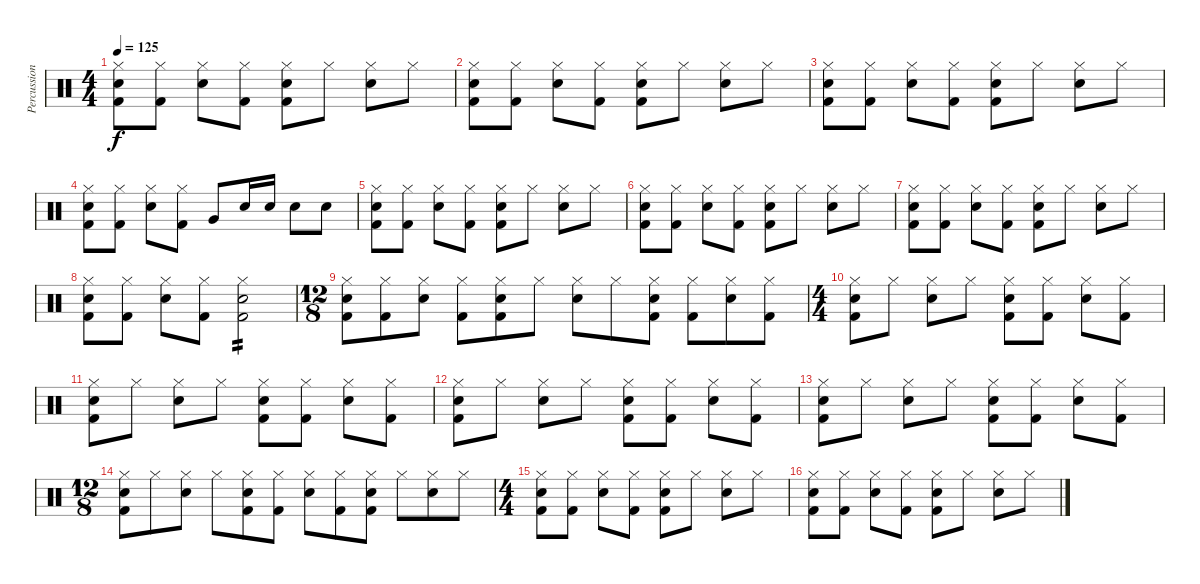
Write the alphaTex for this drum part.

\track ("Percussion" "Percussion") {instrument percussion}
\staff {score}
\articulation defaults
\ts (4 4)
\tempo 125
\clef neutral
\ks c
("Hi-Hat (closed)" "Electric Snare (hit)" "Kick (hit) 2").8{dy f} ("Hi-Hat (closed)" "Kick (hit) 2").8 ("Hi-Hat (closed)" "Electric Snare (hit)").8 ("Hi-Hat (closed)" "Kick (hit) 2").8 ("Hi-Hat (closed)" "Electric Snare (hit)" "Kick (hit) 2").8 "Hi-Hat (closed)".8 ("Hi-Hat (closed)" "Electric Snare (hit)").8 "Hi-Hat (closed)".8 |
("Hi-Hat (closed)" "Electric Snare (hit)" "Kick (hit) 2").8 ("Hi-Hat (closed)" "Kick (hit) 2").8 ("Hi-Hat (closed)" "Electric Snare (hit)").8 ("Hi-Hat (closed)" "Kick (hit) 2").8 ("Hi-Hat (closed)" "Electric Snare (hit)" "Kick (hit) 2").8 "Hi-Hat (closed)".8 ("Hi-Hat (closed)" "Electric Snare (hit)").8 "Hi-Hat (closed)".8 |
("Hi-Hat (closed)" "Electric Snare (hit)" "Kick (hit) 2").8 ("Hi-Hat (closed)" "Kick (hit) 2").8 ("Hi-Hat (closed)" "Electric Snare (hit)").8 ("Hi-Hat (closed)" "Kick (hit) 2").8 ("Hi-Hat (closed)" "Electric Snare (hit)" "Kick (hit) 2").8 "Hi-Hat (closed)".8 ("Hi-Hat (closed)" "Electric Snare (hit)").8 "Hi-Hat (closed)".8 |
("Hi-Hat (closed)" "Electric Snare (hit)" "Kick (hit) 2").8 ("Hi-Hat (closed)" "Kick (hit) 2").8 ("Hi-Hat (closed)" "Electric Snare (hit)").8 ("Hi-Hat (closed)" "Kick (hit) 2").8 "Very Low Tom (hit)".8 "Electric Snare (hit)".16 "Electric Snare (hit)".16 "Electric Snare (hit)".8 "Electric Snare (hit)".8 |
("Hi-Hat (closed)" "Electric Snare (hit)" "Kick (hit) 2").8 ("Hi-Hat (closed)" "Kick (hit) 2").8 ("Hi-Hat (closed)" "Electric Snare (hit)").8 ("Hi-Hat (closed)" "Kick (hit) 2").8 ("Hi-Hat (closed)" "Electric Snare (hit)" "Kick (hit) 2").8 "Hi-Hat (closed)".8 ("Hi-Hat (closed)" "Electric Snare (hit)").8 "Hi-Hat (closed)".8 |
("Hi-Hat (closed)" "Electric Snare (hit)" "Kick (hit) 2").8 ("Hi-Hat (closed)" "Kick (hit) 2").8 ("Hi-Hat (closed)" "Electric Snare (hit)").8 ("Hi-Hat (closed)" "Kick (hit) 2").8 ("Hi-Hat (closed)" "Electric Snare (hit)" "Kick (hit) 2").8 "Hi-Hat (closed)".8 ("Hi-Hat (closed)" "Electric Snare (hit)").8 "Hi-Hat (closed)".8 |
("Hi-Hat (closed)" "Electric Snare (hit)" "Kick (hit) 2").8 ("Hi-Hat (closed)" "Kick (hit) 2").8 ("Hi-Hat (closed)" "Electric Snare (hit)").8 ("Hi-Hat (closed)" "Kick (hit) 2").8 ("Hi-Hat (closed)" "Electric Snare (hit)" "Kick (hit) 2").8 "Hi-Hat (closed)".8 ("Hi-Hat (closed)" "Electric Snare (hit)").8 "Hi-Hat (closed)".8 |
("Hi-Hat (closed)" "Electric Snare (hit)" "Kick (hit) 2").8 ("Hi-Hat (closed)" "Kick (hit) 2").8 ("Hi-Hat (closed)" "Electric Snare (hit)").8 ("Hi-Hat (closed)" "Kick (hit) 2").8 ("Hi-Hat (closed)" "Electric Snare (hit)" "Kick (hit) 2").2{tp 2} |
\ts (12 8)
("Hi-Hat (closed)" "Electric Snare (hit)" "Kick (hit) 2").8 ("Hi-Hat (closed)" "Kick (hit) 2").8 ("Hi-Hat (closed)" "Electric Snare (hit)").8 ("Hi-Hat (closed)" "Kick (hit) 2").8 ("Hi-Hat (closed)" "Electric Snare (hit)" "Kick (hit) 2").8 "Hi-Hat (closed)".8 ("Hi-Hat (closed)" "Electric Snare (hit)").8 "Hi-Hat (closed)".8 ("Hi-Hat (closed)" "Electric Snare (hit)" "Kick (hit) 2").8 ("Hi-Hat (closed)" "Kick (hit) 2").8 ("Hi-Hat (closed)" "Electric Snare (hit)").8 ("Hi-Hat (closed)" "Kick (hit) 2").8 |
\ts (4 4)
("Hi-Hat (closed)" "Electric Snare (hit)" "Kick (hit) 2").8 "Hi-Hat (closed)".8 ("Hi-Hat (closed)" "Electric Snare (hit)").8 "Hi-Hat (closed)".8 ("Hi-Hat (closed)" "Electric Snare (hit)" "Kick (hit) 2").8 ("Hi-Hat (closed)" "Kick (hit) 2").8 ("Hi-Hat (closed)" "Electric Snare (hit)").8 ("Hi-Hat (closed)" "Kick (hit) 2").8 |
("Hi-Hat (closed)" "Electric Snare (hit)" "Kick (hit) 2").8 "Hi-Hat (closed)".8 ("Hi-Hat (closed)" "Electric Snare (hit)").8 "Hi-Hat (closed)".8 ("Hi-Hat (closed)" "Electric Snare (hit)" "Kick (hit) 2").8 ("Hi-Hat (closed)" "Kick (hit) 2").8 ("Hi-Hat (closed)" "Electric Snare (hit)").8 ("Hi-Hat (closed)" "Kick (hit) 2").8 |
("Hi-Hat (closed)" "Electric Snare (hit)" "Kick (hit) 2").8 "Hi-Hat (closed)".8 ("Hi-Hat (closed)" "Electric Snare (hit)").8 "Hi-Hat (closed)".8 ("Hi-Hat (closed)" "Electric Snare (hit)" "Kick (hit) 2").8 ("Hi-Hat (closed)" "Kick (hit) 2").8 ("Hi-Hat (closed)" "Electric Snare (hit)").8 ("Hi-Hat (closed)" "Kick (hit) 2").8 |
("Hi-Hat (closed)" "Electric Snare (hit)" "Kick (hit) 2").8 "Hi-Hat (closed)".8 ("Hi-Hat (closed)" "Electric Snare (hit)").8 "Hi-Hat (closed)".8 ("Hi-Hat (closed)" "Electric Snare (hit)" "Kick (hit) 2").8 ("Hi-Hat (closed)" "Kick (hit) 2").8 ("Hi-Hat (closed)" "Electric Snare (hit)").8 ("Hi-Hat (closed)" "Kick (hit) 2").8 |
\ts (12 8)
("Hi-Hat (closed)" "Electric Snare (hit)" "Kick (hit) 2").8 "Hi-Hat (closed)".8 ("Hi-Hat (closed)" "Electric Snare (hit)").8 "Hi-Hat (closed)".8 ("Hi-Hat (closed)" "Electric Snare (hit)" "Kick (hit) 2").8 ("Hi-Hat (closed)" "Kick (hit) 2").8 ("Hi-Hat (closed)" "Electric Snare (hit)").8 ("Hi-Hat (closed)" "Kick (hit) 2").8 ("Hi-Hat (closed)" "Electric Snare (hit)" "Kick (hit) 2").8 "Hi-Hat (closed)".8 ("Hi-Hat (closed)" "Electric Snare (hit)").8 "Hi-Hat (closed)".8 |
\ts (4 4)
("Hi-Hat (closed)" "Electric Snare (hit)" "Kick (hit) 2").8 ("Hi-Hat (closed)" "Kick (hit) 2").8 ("Hi-Hat (closed)" "Electric Snare (hit)").8 ("Hi-Hat (closed)" "Kick (hit) 2").8 ("Hi-Hat (closed)" "Electric Snare (hit)" "Kick (hit) 2").8 "Hi-Hat (closed)".8 ("Hi-Hat (closed)" "Electric Snare (hit)").8 "Hi-Hat (closed)".8 |
("Hi-Hat (closed)" "Electric Snare (hit)" "Kick (hit) 2").8 ("Hi-Hat (closed)" "Kick (hit) 2").8 ("Hi-Hat (closed)" "Electric Snare (hit)").8 ("Hi-Hat (closed)" "Kick (hit) 2").8 ("Hi-Hat (closed)" "Electric Snare (hit)" "Kick (hit) 2").8 "Hi-Hat (closed)".8 ("Hi-Hat (closed)" "Electric Snare (hit)").8 "Hi-Hat (closed)".8
